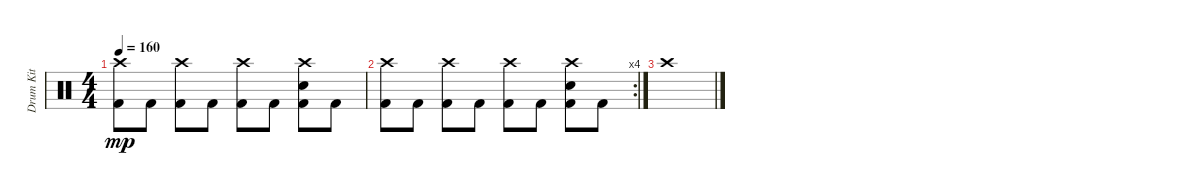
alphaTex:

\track ("Drum Kit" "Drum Kit") {instrument percussion}
\staff {score}
\articulation defaults
\ts (4 4)
\tempo 160
\clef neutral
\ks c
("Crash high (hit)" "Kick (hit) 2").8{dy mp} "Kick (hit) 2".8 ("Crash high (hit)" "Kick (hit) 2").8 "Kick (hit) 2".8 ("Crash high (hit)" "Kick (hit) 2").8 "Kick (hit) 2".8 ("Crash high (hit)" "Electric Snare (hit)" "Kick (hit) 2").8 "Kick (hit) 2".8 |
\rc 4
("Crash high (hit)" "Kick (hit) 2").8 "Kick (hit) 2".8 ("Crash high (hit)" "Kick (hit) 2").8 "Kick (hit) 2".8 ("Crash high (hit)" "Kick (hit) 2").8 "Kick (hit) 2".8 ("Crash high (hit)" "Electric Snare (hit)" "Kick (hit) 2").8 "Kick (hit) 2".8 |
"Crash high (hit)".1
